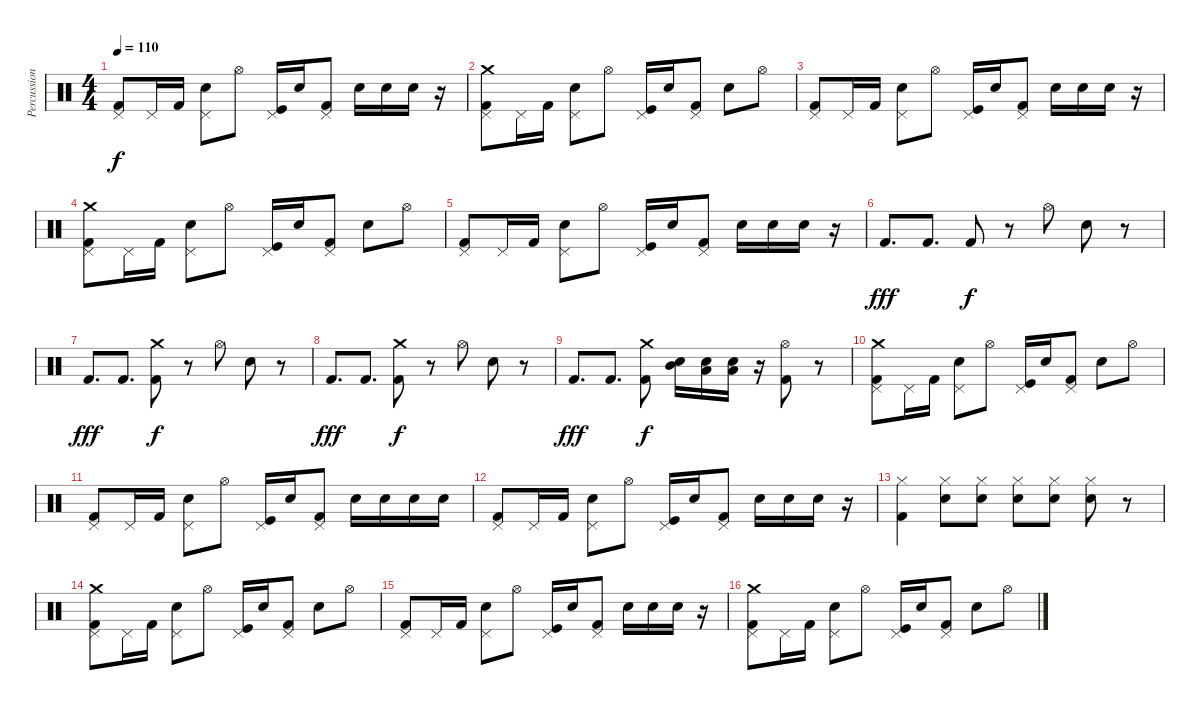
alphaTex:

\track ("Percussions" "Percussion") {instrument percussion}
\staff {score}
\articulation defaults
\ts (4 4)
\tempo 110
\clef neutral
\ks c
("Kick (hit) 2" "Pedal Hi-Hat (hit)").8{dy f} "Pedal Hi-Hat (hit)".16 "Kick (hit) 2".16 ("Electric Snare (hit)" "Pedal Hi-Hat (hit)").8 "Hi-Hat (open)".8 ("Kick (hit)" "Pedal Hi-Hat (hit)").16 "Electric Snare (hit)".16 ("Kick (hit) 2" "Pedal Hi-Hat (hit)").8 "Electric Snare (hit)".16 "Electric Snare (hit)".16 "Electric Snare (hit)".16 r.16 |
("Kick (hit) 2" "Pedal Hi-Hat (hit)" "Crash medium (hit)").8 "Pedal Hi-Hat (hit)".16 "Kick (hit) 2".16 ("Electric Snare (hit)" "Pedal Hi-Hat (hit)").8 "Hi-Hat (open)".8 ("Kick (hit)" "Pedal Hi-Hat (hit)").16 "Electric Snare (hit)".16 ("Kick (hit) 2" "Pedal Hi-Hat (hit)").8 "Electric Snare (hit)".8 "Hi-Hat (open)".8 |
("Kick (hit) 2" "Pedal Hi-Hat (hit)").8 "Pedal Hi-Hat (hit)".16 "Kick (hit) 2".16 ("Electric Snare (hit)" "Pedal Hi-Hat (hit)").8 "Hi-Hat (open)".8 ("Kick (hit)" "Pedal Hi-Hat (hit)").16 "Electric Snare (hit)".16 ("Kick (hit) 2" "Pedal Hi-Hat (hit)").8 "Electric Snare (hit)".16 "Electric Snare (hit)".16 "Electric Snare (hit)".16 r.16 |
("Kick (hit) 2" "Pedal Hi-Hat (hit)" "Crash medium (hit)").8 "Pedal Hi-Hat (hit)".16 "Kick (hit) 2".16 ("Electric Snare (hit)" "Pedal Hi-Hat (hit)").8 "Hi-Hat (open)".8 ("Kick (hit)" "Pedal Hi-Hat (hit)").16 "Electric Snare (hit)".16 ("Kick (hit) 2" "Pedal Hi-Hat (hit)").8 "Electric Snare (hit)".8 "Hi-Hat (open)".8 |
("Kick (hit) 2" "Pedal Hi-Hat (hit)").8 "Pedal Hi-Hat (hit)".16 "Kick (hit) 2".16 ("Electric Snare (hit)" "Pedal Hi-Hat (hit)").8 "Hi-Hat (open)".8 ("Kick (hit)" "Pedal Hi-Hat (hit)").16 "Electric Snare (hit)".16 ("Kick (hit) 2" "Pedal Hi-Hat (hit)").8 "Electric Snare (hit)".16 "Electric Snare (hit)".16 "Electric Snare (hit)".16 r.16 |
"Kick (hit) 2".8{d dy fff} "Kick (hit) 2".8{d} "Kick (hit) 2".8{dy f} r.8 "Hi-Hat (open)".8 "Electric Snare (hit)".8 r.8 |
"Kick (hit) 2".8{d dy fff} "Kick (hit) 2".8{d} ("Kick (hit) 2" "Crash medium (hit)").8{dy f} r.8 "Hi-Hat (open)".8 "Electric Snare (hit)".8 r.8 |
"Kick (hit) 2".8{d dy fff} "Kick (hit) 2".8{d} ("Kick (hit) 2" "Crash medium (hit)").8{dy f} r.8 "Hi-Hat (open)".8 "Electric Snare (hit)".8 r.8 |
"Kick (hit) 2".8{d dy fff} "Kick (hit) 2".8{d} ("Kick (hit) 2" "Crash medium (hit)").8{dy f} ("Mid Tom (hit)" "Electric Snare (hit)").16 ("Low Tom (hit)" "Electric Snare (hit)").16 ("Low Floor Tom (hit)" "Electric Snare (hit)").16 r.16 ("Hi-Hat (open)" "Kick (hit) 2").8 r.8 |
("Kick (hit) 2" "Pedal Hi-Hat (hit)" "Crash medium (hit)").8 "Pedal Hi-Hat (hit)".16 "Kick (hit) 2".16 ("Electric Snare (hit)" "Pedal Hi-Hat (hit)").8 "Hi-Hat (open)".8 ("Kick (hit)" "Pedal Hi-Hat (hit)").16 "Electric Snare (hit)".16 ("Kick (hit) 2" "Pedal Hi-Hat (hit)").8 "Electric Snare (hit)".8 "Hi-Hat (open)".8 |
("Kick (hit) 2" "Pedal Hi-Hat (hit)").8 "Pedal Hi-Hat (hit)".16 "Kick (hit) 2".16 ("Electric Snare (hit)" "Pedal Hi-Hat (hit)").8 "Hi-Hat (open)".8 ("Kick (hit)" "Pedal Hi-Hat (hit)").16 "Electric Snare (hit)".16 ("Kick (hit) 2" "Pedal Hi-Hat (hit)").8 "Electric Snare (hit)".16 "Electric Snare (hit)".16 "Electric Snare (hit)".16 "Electric Snare (hit)".16 |
("Kick (hit) 2" "Pedal Hi-Hat (hit)").8 "Pedal Hi-Hat (hit)".16 "Kick (hit) 2".16 ("Electric Snare (hit)" "Pedal Hi-Hat (hit)").8 "Hi-Hat (open)".8 ("Kick (hit)" "Pedal Hi-Hat (hit)").16 "Electric Snare (hit)".16 ("Kick (hit) 2" "Pedal Hi-Hat (hit)").8 "Electric Snare (hit)".16 "Electric Snare (hit)".16 "Electric Snare (hit)".16 r.16 |
("Hi-Hat (closed)" "Kick (hit) 2").4 ("Hi-Hat (closed)" "Electric Snare (hit)").8 ("Hi-Hat (closed)" "Electric Snare (hit)").8 ("Hi-Hat (closed)" "Electric Snare (hit)").8 ("Hi-Hat (closed)" "Electric Snare (hit)").8 ("Hi-Hat (closed)" "Electric Snare (hit)").8 r.8 |
("Kick (hit) 2" "Pedal Hi-Hat (hit)" "Crash medium (hit)").8 "Pedal Hi-Hat (hit)".16 "Kick (hit) 2".16 ("Electric Snare (hit)" "Pedal Hi-Hat (hit)").8 "Hi-Hat (open)".8 ("Kick (hit)" "Pedal Hi-Hat (hit)").16 "Electric Snare (hit)".16 ("Kick (hit) 2" "Pedal Hi-Hat (hit)").8 "Electric Snare (hit)".8 "Hi-Hat (open)".8 |
("Kick (hit) 2" "Pedal Hi-Hat (hit)").8 "Pedal Hi-Hat (hit)".16 "Kick (hit) 2".16 ("Electric Snare (hit)" "Pedal Hi-Hat (hit)").8 "Hi-Hat (open)".8 ("Kick (hit)" "Pedal Hi-Hat (hit)").16 "Electric Snare (hit)".16 ("Kick (hit) 2" "Pedal Hi-Hat (hit)").8 "Electric Snare (hit)".16 "Electric Snare (hit)".16 "Electric Snare (hit)".16 r.16 |
("Kick (hit) 2" "Pedal Hi-Hat (hit)" "Crash medium (hit)").8 "Pedal Hi-Hat (hit)".16 "Kick (hit) 2".16 ("Electric Snare (hit)" "Pedal Hi-Hat (hit)").8 "Hi-Hat (open)".8 ("Kick (hit)" "Pedal Hi-Hat (hit)").16 "Electric Snare (hit)".16 ("Kick (hit) 2" "Pedal Hi-Hat (hit)").8 "Electric Snare (hit)".8 "Hi-Hat (open)".8
